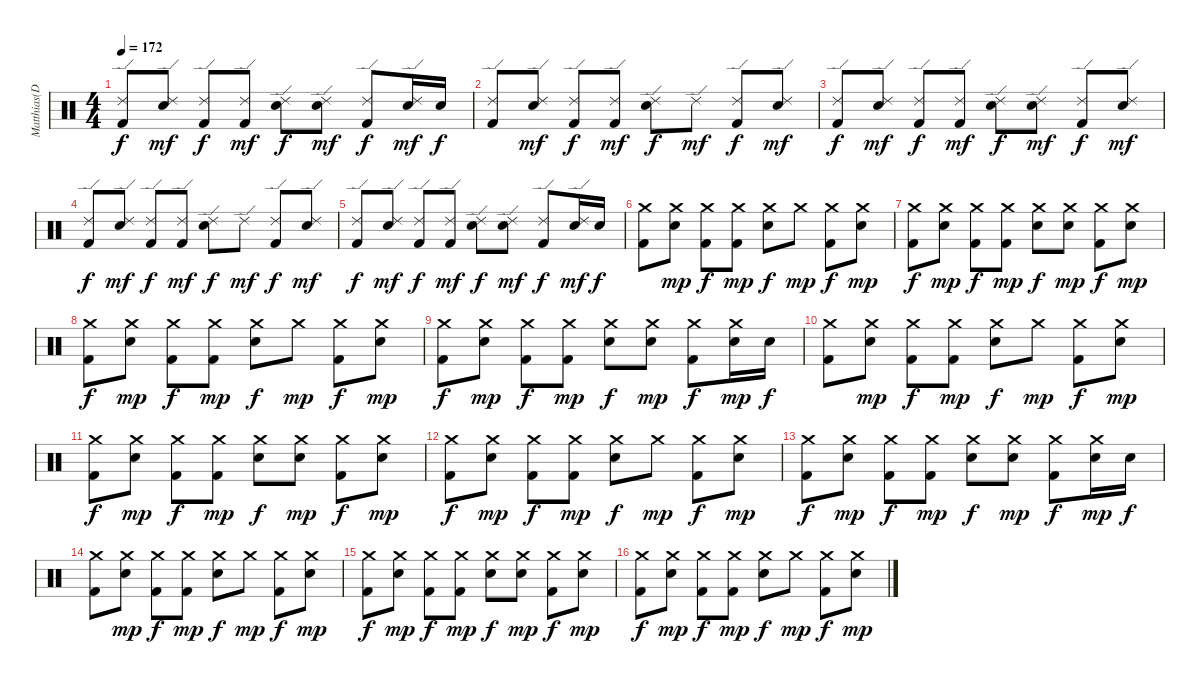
\track ("Matthias(Drums)" "Matthias(D") {instrument percussion}
\staff {score}
\articulation defaults
\ts (4 4)
\tempo 172
\clef neutral
\ks c
("Ride (edge) 2" "Kick (hit) 2").8{dy f} ("Ride (edge) 2" "Snare (hit) 2").8{dy mf} ("Ride (edge) 2" "Kick (hit) 2").8{dy f} ("Ride (edge) 2" "Kick (hit) 2").8{dy mf} ("Ride (edge) 2" "Snare (hit) 2").8{dy f} ("Ride (edge) 2" "Snare (hit) 2").8{dy mf} ("Ride (edge) 2" "Kick (hit) 2").8{dy f} ("Ride (edge) 2" "Snare (hit) 2").16{dy mf} "Snare (hit) 2".16{dy f} |
("Ride (edge) 2" "Kick (hit) 2").8 ("Ride (edge) 2" "Snare (hit) 2").8{dy mf} ("Ride (edge) 2" "Kick (hit) 2").8{dy f} ("Ride (edge) 2" "Kick (hit) 2").8{dy mf} ("Ride (edge) 2" "Snare (hit) 2").8{dy f} "Ride (edge) 2".8{dy mf} ("Ride (edge) 2" "Kick (hit) 2").8{dy f} ("Ride (edge) 2" "Snare (hit) 2").8{dy mf} |
("Ride (edge) 2" "Kick (hit) 2").8{dy f} ("Ride (edge) 2" "Snare (hit) 2").8{dy mf} ("Ride (edge) 2" "Kick (hit) 2").8{dy f} ("Ride (edge) 2" "Kick (hit) 2").8{dy mf} ("Ride (edge) 2" "Snare (hit) 2").8{dy f} ("Ride (edge) 2" "Snare (hit) 2").8{dy mf} ("Ride (edge) 2" "Kick (hit) 2").8{dy f} ("Ride (edge) 2" "Snare (hit) 2").8{dy mf} |
("Ride (edge) 2" "Kick (hit) 2").8{dy f} ("Ride (edge) 2" "Snare (hit) 2").8{dy mf} ("Ride (edge) 2" "Kick (hit) 2").8{dy f} ("Ride (edge) 2" "Kick (hit) 2").8{dy mf} ("Ride (edge) 2" "Snare (hit) 2").8{dy f} "Ride (edge) 2".8{dy mf} ("Ride (edge) 2" "Kick (hit) 2").8{dy f} ("Ride (edge) 2" "Snare (hit) 2").8{dy mf} |
("Ride (edge) 2" "Kick (hit) 2").8{dy f} ("Ride (edge) 2" "Snare (hit) 2").8{dy mf} ("Ride (edge) 2" "Kick (hit) 2").8{dy f} ("Ride (edge) 2" "Kick (hit) 2").8{dy mf} ("Ride (edge) 2" "Snare (hit) 2").8{dy f} ("Ride (edge) 2" "Snare (hit) 2").8{dy mf} ("Ride (edge) 2" "Kick (hit) 2").8{dy f} ("Ride (edge) 2" "Snare (hit) 2").16{dy mf} "Snare (hit) 2".16{dy f} |
("Crash medium (hit)" "Kick (hit) 2").8 ("Crash medium (hit)" "Snare (hit) 2").8{dy mp} ("Crash medium (hit)" "Kick (hit) 2").8{dy f} ("Crash medium (hit)" "Kick (hit) 2").8{dy mp} ("Crash medium (hit)" "Snare (hit) 2").8{dy f} "Crash medium (hit)".8{dy mp} ("Crash medium (hit)" "Kick (hit) 2").8{dy f} ("Crash medium (hit)" "Snare (hit) 2").8{dy mp} |
("Crash medium (hit)" "Kick (hit) 2").8{dy f} ("Crash medium (hit)" "Snare (hit) 2").8{dy mp} ("Crash medium (hit)" "Kick (hit) 2").8{dy f} ("Crash medium (hit)" "Kick (hit) 2").8{dy mp} ("Crash medium (hit)" "Snare (hit) 2").8{dy f} ("Crash medium (hit)" "Snare (hit) 2").8{dy mp} ("Crash medium (hit)" "Kick (hit) 2").8{dy f} ("Crash medium (hit)" "Snare (hit) 2").8{dy mp} |
("Crash medium (hit)" "Kick (hit) 2").8{dy f} ("Crash medium (hit)" "Snare (hit) 2").8{dy mp} ("Crash medium (hit)" "Kick (hit) 2").8{dy f} ("Crash medium (hit)" "Kick (hit) 2").8{dy mp} ("Crash medium (hit)" "Snare (hit) 2").8{dy f} "Crash medium (hit)".8{dy mp} ("Crash medium (hit)" "Kick (hit) 2").8{dy f} ("Crash medium (hit)" "Snare (hit) 2").8{dy mp} |
("Crash medium (hit)" "Kick (hit) 2").8{dy f} ("Crash medium (hit)" "Snare (hit) 2").8{dy mp} ("Crash medium (hit)" "Kick (hit) 2").8{dy f} ("Crash medium (hit)" "Kick (hit) 2").8{dy mp} ("Crash medium (hit)" "Snare (hit) 2").8{dy f} ("Crash medium (hit)" "Snare (hit) 2").8{dy mp} ("Crash medium (hit)" "Kick (hit) 2").8{dy f} ("Crash medium (hit)" "Snare (hit) 2").16{dy mp} "Snare (hit) 2".16{dy f} |
("Crash medium (hit)" "Kick (hit) 2").8 ("Crash medium (hit)" "Snare (hit) 2").8{dy mp} ("Crash medium (hit)" "Kick (hit) 2").8{dy f} ("Crash medium (hit)" "Kick (hit) 2").8{dy mp} ("Crash medium (hit)" "Snare (hit) 2").8{dy f} "Crash medium (hit)".8{dy mp} ("Crash medium (hit)" "Kick (hit) 2").8{dy f} ("Crash medium (hit)" "Snare (hit) 2").8{dy mp} |
("Crash medium (hit)" "Kick (hit) 2").8{dy f} ("Crash medium (hit)" "Snare (hit) 2").8{dy mp} ("Crash medium (hit)" "Kick (hit) 2").8{dy f} ("Crash medium (hit)" "Kick (hit) 2").8{dy mp} ("Crash medium (hit)" "Snare (hit) 2").8{dy f} ("Crash medium (hit)" "Snare (hit) 2").8{dy mp} ("Crash medium (hit)" "Kick (hit) 2").8{dy f} ("Crash medium (hit)" "Snare (hit) 2").8{dy mp} |
("Crash medium (hit)" "Kick (hit) 2").8{dy f} ("Crash medium (hit)" "Snare (hit) 2").8{dy mp} ("Crash medium (hit)" "Kick (hit) 2").8{dy f} ("Crash medium (hit)" "Kick (hit) 2").8{dy mp} ("Crash medium (hit)" "Snare (hit) 2").8{dy f} "Crash medium (hit)".8{dy mp} ("Crash medium (hit)" "Kick (hit) 2").8{dy f} ("Crash medium (hit)" "Snare (hit) 2").8{dy mp} |
("Crash medium (hit)" "Kick (hit) 2").8{dy f} ("Crash medium (hit)" "Snare (hit) 2").8{dy mp} ("Crash medium (hit)" "Kick (hit) 2").8{dy f} ("Crash medium (hit)" "Kick (hit) 2").8{dy mp} ("Crash medium (hit)" "Snare (hit) 2").8{dy f} ("Crash medium (hit)" "Snare (hit) 2").8{dy mp} ("Crash medium (hit)" "Kick (hit) 2").8{dy f} ("Crash medium (hit)" "Snare (hit) 2").16{dy mp} "Snare (hit) 2".16{dy f} |
("Crash medium (hit)" "Kick (hit) 2").8 ("Crash medium (hit)" "Snare (hit) 2").8{dy mp} ("Crash medium (hit)" "Kick (hit) 2").8{dy f} ("Crash medium (hit)" "Kick (hit) 2").8{dy mp} ("Crash medium (hit)" "Snare (hit) 2").8{dy f} "Crash medium (hit)".8{dy mp} ("Crash medium (hit)" "Kick (hit) 2").8{dy f} ("Crash medium (hit)" "Snare (hit) 2").8{dy mp} |
("Crash medium (hit)" "Kick (hit) 2").8{dy f} ("Crash medium (hit)" "Snare (hit) 2").8{dy mp} ("Crash medium (hit)" "Kick (hit) 2").8{dy f} ("Crash medium (hit)" "Kick (hit) 2").8{dy mp} ("Crash medium (hit)" "Snare (hit) 2").8{dy f} ("Crash medium (hit)" "Snare (hit) 2").8{dy mp} ("Crash medium (hit)" "Kick (hit) 2").8{dy f} ("Crash medium (hit)" "Snare (hit) 2").8{dy mp} |
("Crash medium (hit)" "Kick (hit) 2").8{dy f} ("Crash medium (hit)" "Snare (hit) 2").8{dy mp} ("Crash medium (hit)" "Kick (hit) 2").8{dy f} ("Crash medium (hit)" "Kick (hit) 2").8{dy mp} ("Crash medium (hit)" "Snare (hit) 2").8{dy f} "Crash medium (hit)".8{dy mp} ("Crash medium (hit)" "Kick (hit) 2").8{dy f} ("Crash medium (hit)" "Snare (hit) 2").8{dy mp}
